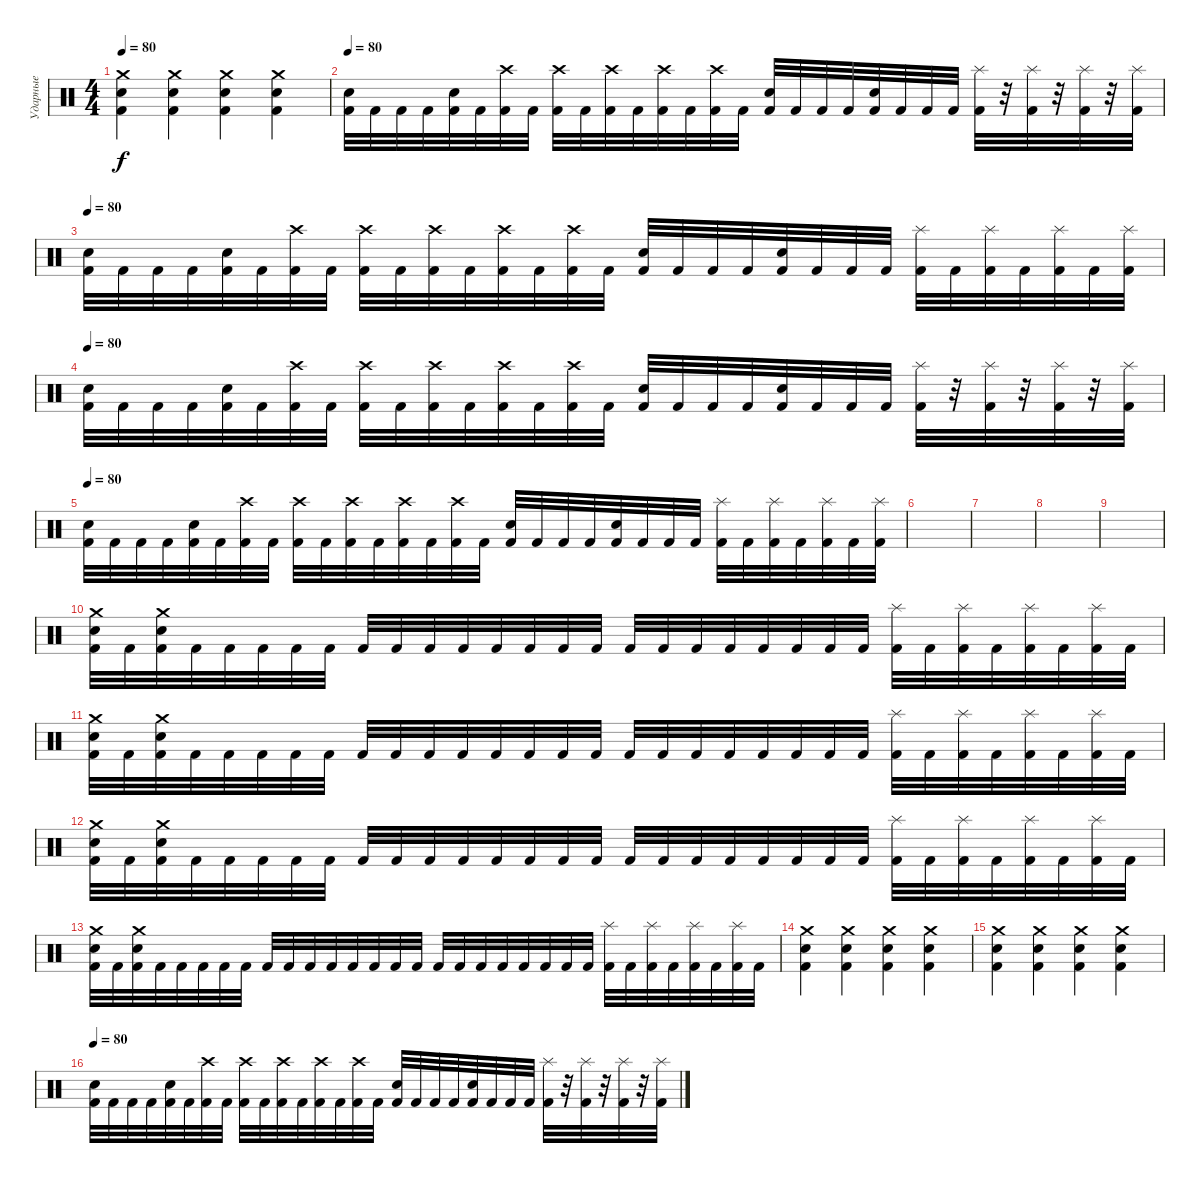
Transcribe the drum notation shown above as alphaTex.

\track ("Ударные" "Ударные") {instrument percussion}
\staff {score}
\articulation defaults
\ts (4 4)
\tempo 80
\clef neutral
\ks c
("Crash medium (hit)" "Snare (hit) 2" "Kick (hit) 2").4{dy f} ("Crash medium (hit)" "Snare (hit) 2" "Kick (hit) 2").4 ("Crash medium (hit)" "Snare (hit) 2" "Kick (hit) 2").4 ("Crash medium (hit)" "Snare (hit) 2" "Kick (hit) 2").4 |
\tempo 80
("Snare (hit) 2" "Kick (hit) 2").32{volume 16} "Kick (hit) 2".32 "Kick (hit) 2".32 "Kick (hit) 2".32 ("Snare (hit) 2" "Kick (hit) 2").32 "Kick (hit) 2".32 ("Crash high (hit)" "Kick (hit) 2").32 "Kick (hit) 2".32 ("Crash high (hit)" "Kick (hit) 2").32 "Kick (hit) 2".32 ("Crash high (hit)" "Kick (hit) 2").32 "Kick (hit) 2".32 ("Crash high (hit)" "Kick (hit) 2").32 "Kick (hit) 2".32 ("Crash high (hit)" "Kick (hit) 2").32 "Kick (hit) 2".32 ("Snare (hit) 2" "Kick (hit) 2").32 "Kick (hit) 2".32 "Kick (hit) 2".32 "Kick (hit) 2".32 ("Snare (hit) 2" "Kick (hit) 2").32 "Kick (hit) 2".32 "Kick (hit) 2".32 "Kick (hit) 2".32 ("Splash (hit)" "Kick (hit) 2").32 r.32 ("Splash (hit)" "Kick (hit) 2").32 r.32 ("Splash (hit)" "Kick (hit) 2").32 r.32 ("Splash (hit)" "Kick (hit) 2").32 |
\tempo 80
("Snare (hit) 2" "Kick (hit) 2").32 "Kick (hit) 2".32 "Kick (hit) 2".32 "Kick (hit) 2".32 ("Snare (hit) 2" "Kick (hit) 2").32 "Kick (hit) 2".32 ("Crash high (hit)" "Kick (hit) 2").32 "Kick (hit) 2".32 ("Crash high (hit)" "Kick (hit) 2").32 "Kick (hit) 2".32 ("Crash high (hit)" "Kick (hit) 2").32 "Kick (hit) 2".32 ("Crash high (hit)" "Kick (hit) 2").32 "Kick (hit) 2".32 ("Crash high (hit)" "Kick (hit) 2").32 "Kick (hit) 2".32 ("Snare (hit) 2" "Kick (hit) 2").32 "Kick (hit) 2".32 "Kick (hit) 2".32 "Kick (hit) 2".32 ("Snare (hit) 2" "Kick (hit) 2").32 "Kick (hit) 2".32 "Kick (hit) 2".32 "Kick (hit) 2".32 ("Splash (hit)" "Kick (hit) 2").32 "Kick (hit) 2".32 ("Splash (hit)" "Kick (hit) 2").32 "Kick (hit) 2".32 ("Splash (hit)" "Kick (hit) 2").32 "Kick (hit) 2".32 ("Splash (hit)" "Kick (hit) 2").32 |
\tempo 80
("Snare (hit) 2" "Kick (hit) 2").32{volume 16} "Kick (hit) 2".32 "Kick (hit) 2".32 "Kick (hit) 2".32 ("Snare (hit) 2" "Kick (hit) 2").32 "Kick (hit) 2".32 ("Crash high (hit)" "Kick (hit) 2").32 "Kick (hit) 2".32 ("Crash high (hit)" "Kick (hit) 2").32 "Kick (hit) 2".32 ("Crash high (hit)" "Kick (hit) 2").32 "Kick (hit) 2".32 ("Crash high (hit)" "Kick (hit) 2").32 "Kick (hit) 2".32 ("Crash high (hit)" "Kick (hit) 2").32 "Kick (hit) 2".32 ("Snare (hit) 2" "Kick (hit) 2").32 "Kick (hit) 2".32 "Kick (hit) 2".32 "Kick (hit) 2".32 ("Snare (hit) 2" "Kick (hit) 2").32 "Kick (hit) 2".32 "Kick (hit) 2".32 "Kick (hit) 2".32 ("Splash (hit)" "Kick (hit) 2").32 r.32 ("Splash (hit)" "Kick (hit) 2").32 r.32 ("Splash (hit)" "Kick (hit) 2").32 r.32 ("Splash (hit)" "Kick (hit) 2").32 |
\tempo 80
("Snare (hit) 2" "Kick (hit) 2").32 "Kick (hit) 2".32 "Kick (hit) 2".32 "Kick (hit) 2".32 ("Snare (hit) 2" "Kick (hit) 2").32 "Kick (hit) 2".32 ("Crash high (hit)" "Kick (hit) 2").32 "Kick (hit) 2".32 ("Crash high (hit)" "Kick (hit) 2").32 "Kick (hit) 2".32 ("Crash high (hit)" "Kick (hit) 2").32 "Kick (hit) 2".32 ("Crash high (hit)" "Kick (hit) 2").32 "Kick (hit) 2".32 ("Crash high (hit)" "Kick (hit) 2").32 "Kick (hit) 2".32 ("Snare (hit) 2" "Kick (hit) 2").32 "Kick (hit) 2".32 "Kick (hit) 2".32 "Kick (hit) 2".32 ("Snare (hit) 2" "Kick (hit) 2").32 "Kick (hit) 2".32 "Kick (hit) 2".32 "Kick (hit) 2".32 ("Splash (hit)" "Kick (hit) 2").32 "Kick (hit) 2".32 ("Splash (hit)" "Kick (hit) 2").32 "Kick (hit) 2".32 ("Splash (hit)" "Kick (hit) 2").32 "Kick (hit) 2".32 ("Splash (hit)" "Kick (hit) 2").32 |
|
|
|
|
("Crash medium (hit)" "Snare (hit) 2" "Kick (hit) 2").32 "Kick (hit) 2".32 ("Crash medium (hit)" "Snare (hit) 2" "Kick (hit) 2").32 "Kick (hit) 2".32 "Kick (hit) 2".32 "Kick (hit) 2".32 "Kick (hit) 2".32 "Kick (hit) 2".32 "Kick (hit) 2".32 "Kick (hit) 2".32 "Kick (hit) 2".32 "Kick (hit) 2".32 "Kick (hit) 2".32 "Kick (hit) 2".32 "Kick (hit) 2".32 "Kick (hit) 2".32 "Kick (hit) 2".32 "Kick (hit) 2".32 "Kick (hit) 2".32 "Kick (hit) 2".32 "Kick (hit) 2".32 "Kick (hit) 2".32 "Kick (hit) 2".32 "Kick (hit) 2".32 ("Splash (hit)" "Kick (hit) 2").32 "Kick (hit) 2".32 ("Splash (hit)" "Kick (hit) 2").32 "Kick (hit) 2".32 ("Splash (hit)" "Kick (hit) 2").32 "Kick (hit) 2".32 ("Splash (hit)" "Kick (hit) 2").32 "Kick (hit) 2".32 |
("Crash medium (hit)" "Snare (hit) 2" "Kick (hit) 2").32 "Kick (hit) 2".32 ("Crash medium (hit)" "Snare (hit) 2" "Kick (hit) 2").32 "Kick (hit) 2".32 "Kick (hit) 2".32 "Kick (hit) 2".32 "Kick (hit) 2".32 "Kick (hit) 2".32 "Kick (hit) 2".32 "Kick (hit) 2".32 "Kick (hit) 2".32 "Kick (hit) 2".32 "Kick (hit) 2".32 "Kick (hit) 2".32 "Kick (hit) 2".32 "Kick (hit) 2".32 "Kick (hit) 2".32 "Kick (hit) 2".32 "Kick (hit) 2".32 "Kick (hit) 2".32 "Kick (hit) 2".32 "Kick (hit) 2".32 "Kick (hit) 2".32 "Kick (hit) 2".32 ("Splash (hit)" "Kick (hit) 2").32 "Kick (hit) 2".32 ("Splash (hit)" "Kick (hit) 2").32 "Kick (hit) 2".32 ("Splash (hit)" "Kick (hit) 2").32 "Kick (hit) 2".32 ("Splash (hit)" "Kick (hit) 2").32 "Kick (hit) 2".32 |
("Crash medium (hit)" "Snare (hit) 2" "Kick (hit) 2").32 "Kick (hit) 2".32 ("Crash medium (hit)" "Snare (hit) 2" "Kick (hit) 2").32 "Kick (hit) 2".32 "Kick (hit) 2".32 "Kick (hit) 2".32 "Kick (hit) 2".32 "Kick (hit) 2".32 "Kick (hit) 2".32 "Kick (hit) 2".32 "Kick (hit) 2".32 "Kick (hit) 2".32 "Kick (hit) 2".32 "Kick (hit) 2".32 "Kick (hit) 2".32 "Kick (hit) 2".32 "Kick (hit) 2".32 "Kick (hit) 2".32 "Kick (hit) 2".32 "Kick (hit) 2".32 "Kick (hit) 2".32 "Kick (hit) 2".32 "Kick (hit) 2".32 "Kick (hit) 2".32 ("Splash (hit)" "Kick (hit) 2").32 "Kick (hit) 2".32 ("Splash (hit)" "Kick (hit) 2").32 "Kick (hit) 2".32 ("Splash (hit)" "Kick (hit) 2").32 "Kick (hit) 2".32 ("Splash (hit)" "Kick (hit) 2").32 "Kick (hit) 2".32 |
("Crash medium (hit)" "Snare (hit) 2" "Kick (hit) 2").32 "Kick (hit) 2".32 ("Crash medium (hit)" "Snare (hit) 2" "Kick (hit) 2").32 "Kick (hit) 2".32 "Kick (hit) 2".32 "Kick (hit) 2".32 "Kick (hit) 2".32 "Kick (hit) 2".32 "Kick (hit) 2".32 "Kick (hit) 2".32 "Kick (hit) 2".32 "Kick (hit) 2".32 "Kick (hit) 2".32 "Kick (hit) 2".32 "Kick (hit) 2".32 "Kick (hit) 2".32 "Kick (hit) 2".32 "Kick (hit) 2".32 "Kick (hit) 2".32 "Kick (hit) 2".32 "Kick (hit) 2".32 "Kick (hit) 2".32 "Kick (hit) 2".32 "Kick (hit) 2".32 ("Splash (hit)" "Kick (hit) 2").32 "Kick (hit) 2".32 ("Splash (hit)" "Kick (hit) 2").32 "Kick (hit) 2".32 ("Splash (hit)" "Kick (hit) 2").32 "Kick (hit) 2".32 ("Splash (hit)" "Kick (hit) 2").32 "Kick (hit) 2".32 |
("Crash medium (hit)" "Snare (hit) 2" "Kick (hit) 2").4 ("Crash medium (hit)" "Snare (hit) 2" "Kick (hit) 2").4 ("Crash medium (hit)" "Snare (hit) 2" "Kick (hit) 2").4 ("Crash medium (hit)" "Snare (hit) 2" "Kick (hit) 2").4 |
("Crash medium (hit)" "Snare (hit) 2" "Kick (hit) 2").4 ("Crash medium (hit)" "Snare (hit) 2" "Kick (hit) 2").4 ("Crash medium (hit)" "Snare (hit) 2" "Kick (hit) 2").4 ("Crash medium (hit)" "Snare (hit) 2" "Kick (hit) 2").4 |
\tempo 80
("Snare (hit) 2" "Kick (hit) 2").32{volume 16} "Kick (hit) 2".32 "Kick (hit) 2".32 "Kick (hit) 2".32 ("Snare (hit) 2" "Kick (hit) 2").32 "Kick (hit) 2".32 ("Crash high (hit)" "Kick (hit) 2").32 "Kick (hit) 2".32 ("Crash high (hit)" "Kick (hit) 2").32 "Kick (hit) 2".32 ("Crash high (hit)" "Kick (hit) 2").32 "Kick (hit) 2".32 ("Crash high (hit)" "Kick (hit) 2").32 "Kick (hit) 2".32 ("Crash high (hit)" "Kick (hit) 2").32 "Kick (hit) 2".32 ("Snare (hit) 2" "Kick (hit) 2").32 "Kick (hit) 2".32 "Kick (hit) 2".32 "Kick (hit) 2".32 ("Snare (hit) 2" "Kick (hit) 2").32 "Kick (hit) 2".32 "Kick (hit) 2".32 "Kick (hit) 2".32 ("Splash (hit)" "Kick (hit) 2").32 r.32 ("Splash (hit)" "Kick (hit) 2").32 r.32 ("Splash (hit)" "Kick (hit) 2").32 r.32 ("Splash (hit)" "Kick (hit) 2").32
